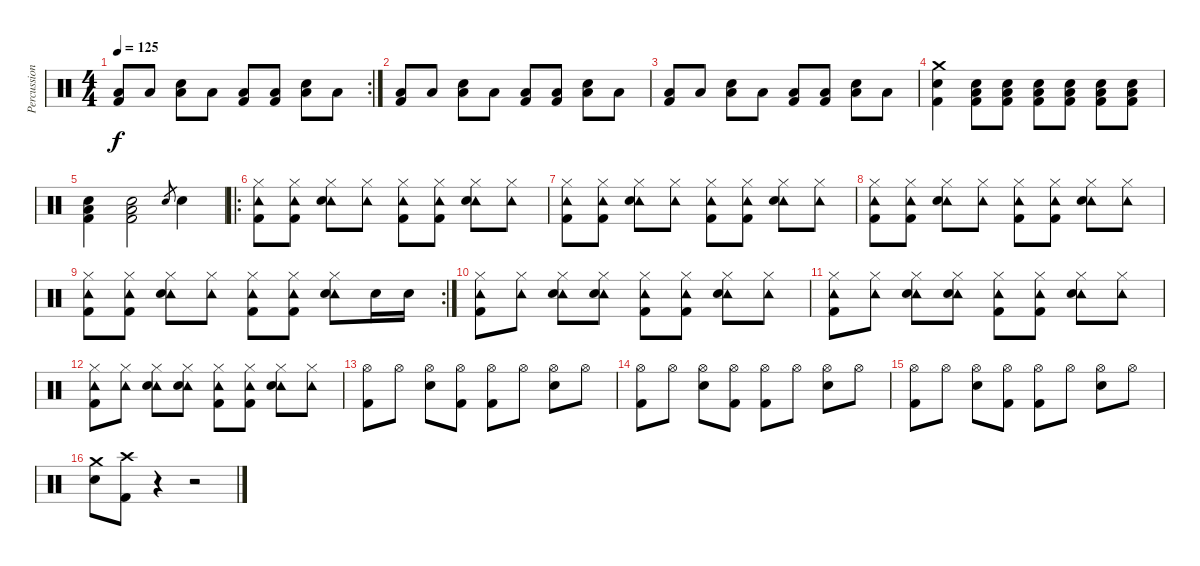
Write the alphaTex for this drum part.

\track ("Percussions" "Percussion") {instrument percussion}
\staff {score}
\articulation defaults
\rc 2
\ts (4 4)
\tempo 125
\clef neutral
\ks c
("Low Tom (hit)" "Kick (hit) 2").8{dy f} "Low Tom (hit)".8 ("Low Tom (hit)" "Electric Snare (hit)").8 "Low Tom (hit)".8 ("Low Tom (hit)" "Kick (hit) 2").8 ("Low Tom (hit)" "Kick (hit) 2").8 ("Low Tom (hit)" "Electric Snare (hit)").8 "Low Tom (hit)".8 |
("Low Tom (hit)" "Kick (hit) 2").8 "Low Tom (hit)".8 ("Low Tom (hit)" "Electric Snare (hit)").8 "Low Tom (hit)".8 ("Low Tom (hit)" "Kick (hit) 2").8 ("Low Tom (hit)" "Kick (hit) 2").8 ("Low Tom (hit)" "Electric Snare (hit)").8 "Low Tom (hit)".8 |
("Low Tom (hit)" "Kick (hit) 2").8 "Low Tom (hit)".8 ("Low Tom (hit)" "Electric Snare (hit)").8 "Low Tom (hit)".8 ("Low Tom (hit)" "Kick (hit) 2").8 ("Low Tom (hit)" "Kick (hit) 2").8 ("Low Tom (hit)" "Electric Snare (hit)").8 "Low Tom (hit)".8 |
("Crash medium (hit)" "Electric Snare (hit)" "Kick (hit) 2").4 ("Low Tom (hit)" "Electric Snare (hit)" "Kick (hit) 2").8 ("Low Tom (hit)" "Electric Snare (hit)" "Kick (hit) 2").8 ("Low Tom (hit)" "Electric Snare (hit)" "Kick (hit) 2").8 ("Low Tom (hit)" "Electric Snare (hit)" "Kick (hit) 2").8 ("Low Tom (hit)" "Electric Snare (hit)" "Kick (hit) 2").8 ("Low Tom (hit)" "Electric Snare (hit)" "Kick (hit) 2").8 |
("Low Tom (hit)" "Electric Snare (hit)" "Kick (hit) 2").4 ("Low Tom (hit)" "Electric Snare (hit)" "Kick (hit) 2").2 "Electric Snare (hit)".8{gr} "Electric Snare (hit)".4 |
\ro
("Tambourine (hit)" "Hi-Hat (closed)" "Kick (hit) 2").8 ("Tambourine (hit)" "Hi-Hat (closed)" "Kick (hit) 2").8 ("Tambourine (hit)" "Hi-Hat (closed)" "Electric Snare (hit)").8 ("Tambourine (hit)" "Hi-Hat (closed)").8 ("Tambourine (hit)" "Hi-Hat (closed)" "Kick (hit) 2").8 ("Tambourine (hit)" "Hi-Hat (closed)" "Kick (hit) 2").8 ("Tambourine (hit)" "Hi-Hat (closed)" "Electric Snare (hit)").8 ("Tambourine (hit)" "Hi-Hat (closed)").8 |
("Tambourine (hit)" "Hi-Hat (closed)" "Kick (hit) 2").8 ("Tambourine (hit)" "Hi-Hat (closed)" "Kick (hit) 2").8 ("Tambourine (hit)" "Hi-Hat (closed)" "Electric Snare (hit)").8 ("Tambourine (hit)" "Hi-Hat (closed)").8 ("Tambourine (hit)" "Hi-Hat (closed)" "Kick (hit) 2").8 ("Tambourine (hit)" "Hi-Hat (closed)" "Kick (hit) 2").8 ("Tambourine (hit)" "Hi-Hat (closed)" "Electric Snare (hit)").8 ("Tambourine (hit)" "Hi-Hat (closed)").8 |
("Tambourine (hit)" "Hi-Hat (closed)" "Kick (hit) 2").8 ("Tambourine (hit)" "Hi-Hat (closed)" "Kick (hit) 2").8 ("Tambourine (hit)" "Hi-Hat (closed)" "Electric Snare (hit)").8 ("Tambourine (hit)" "Hi-Hat (closed)").8 ("Tambourine (hit)" "Hi-Hat (closed)" "Kick (hit) 2").8 ("Tambourine (hit)" "Hi-Hat (closed)" "Kick (hit) 2").8 ("Tambourine (hit)" "Hi-Hat (closed)" "Electric Snare (hit)").8 ("Tambourine (hit)" "Hi-Hat (closed)").8 |
\rc 2
("Tambourine (hit)" "Hi-Hat (closed)" "Kick (hit) 2").8 ("Tambourine (hit)" "Hi-Hat (closed)" "Kick (hit) 2").8 ("Tambourine (hit)" "Hi-Hat (closed)" "Electric Snare (hit)").8 ("Tambourine (hit)" "Hi-Hat (closed)").8 ("Tambourine (hit)" "Hi-Hat (closed)" "Kick (hit) 2").8 ("Tambourine (hit)" "Hi-Hat (closed)" "Kick (hit) 2").8 ("Tambourine (hit)" "Hi-Hat (closed)" "Electric Snare (hit)").8 "Electric Snare (hit)".16 "Electric Snare (hit)".16 |
("Tambourine (hit)" "Hi-Hat (closed)" "Kick (hit) 2").8 ("Tambourine (hit)" "Hi-Hat (closed)").8 ("Tambourine (hit)" "Hi-Hat (closed)" "Electric Snare (hit)").8 ("Tambourine (hit)" "Hi-Hat (closed)" "Electric Snare (hit)").8 ("Tambourine (hit)" "Hi-Hat (closed)" "Kick (hit) 2").8 ("Tambourine (hit)" "Hi-Hat (closed)" "Kick (hit) 2").8 ("Tambourine (hit)" "Hi-Hat (closed)" "Electric Snare (hit)").8 ("Tambourine (hit)" "Hi-Hat (closed)").8 |
("Tambourine (hit)" "Hi-Hat (closed)" "Kick (hit) 2").8 ("Tambourine (hit)" "Hi-Hat (closed)").8 ("Tambourine (hit)" "Hi-Hat (closed)" "Electric Snare (hit)").8 ("Tambourine (hit)" "Hi-Hat (closed)" "Electric Snare (hit)").8 ("Tambourine (hit)" "Hi-Hat (closed)" "Kick (hit) 2").8 ("Tambourine (hit)" "Hi-Hat (closed)" "Kick (hit) 2").8 ("Tambourine (hit)" "Hi-Hat (closed)" "Electric Snare (hit)").8 ("Tambourine (hit)" "Hi-Hat (closed)").8 |
("Tambourine (hit)" "Hi-Hat (closed)" "Kick (hit) 2").8 ("Tambourine (hit)" "Hi-Hat (closed)").8 ("Tambourine (hit)" "Hi-Hat (closed)" "Electric Snare (hit)").8 ("Tambourine (hit)" "Hi-Hat (closed)" "Electric Snare (hit)").8 ("Tambourine (hit)" "Hi-Hat (closed)" "Kick (hit) 2").8 ("Tambourine (hit)" "Hi-Hat (closed)" "Kick (hit) 2").8 ("Tambourine (hit)" "Hi-Hat (closed)" "Electric Snare (hit)").8 ("Tambourine (hit)" "Hi-Hat (closed)").8 |
("Hi-Hat (open)" "Kick (hit) 2").8 "Hi-Hat (open)".8 ("Hi-Hat (open)" "Electric Snare (hit)").8 ("Hi-Hat (open)" "Kick (hit) 2").8 ("Hi-Hat (open)" "Kick (hit) 2").8 "Hi-Hat (open)".8 ("Hi-Hat (open)" "Electric Snare (hit)").8 "Hi-Hat (open)".8 |
("Hi-Hat (open)" "Kick (hit) 2").8 "Hi-Hat (open)".8 ("Hi-Hat (open)" "Electric Snare (hit)").8 ("Hi-Hat (open)" "Kick (hit) 2").8 ("Hi-Hat (open)" "Kick (hit) 2").8 "Hi-Hat (open)".8 ("Hi-Hat (open)" "Electric Snare (hit)").8 "Hi-Hat (open)".8 |
("Hi-Hat (open)" "Kick (hit) 2").8 "Hi-Hat (open)".8 ("Hi-Hat (open)" "Electric Snare (hit)").8 ("Hi-Hat (open)" "Kick (hit) 2").8 ("Hi-Hat (open)" "Kick (hit) 2").8 "Hi-Hat (open)".8 ("Hi-Hat (open)" "Electric Snare (hit)").8 "Hi-Hat (open)".8 |
("Crash medium (hit)" "Snare (hit)").8 ("Crash high (hit)" "Kick (hit) 2").8 r.4 r.2
